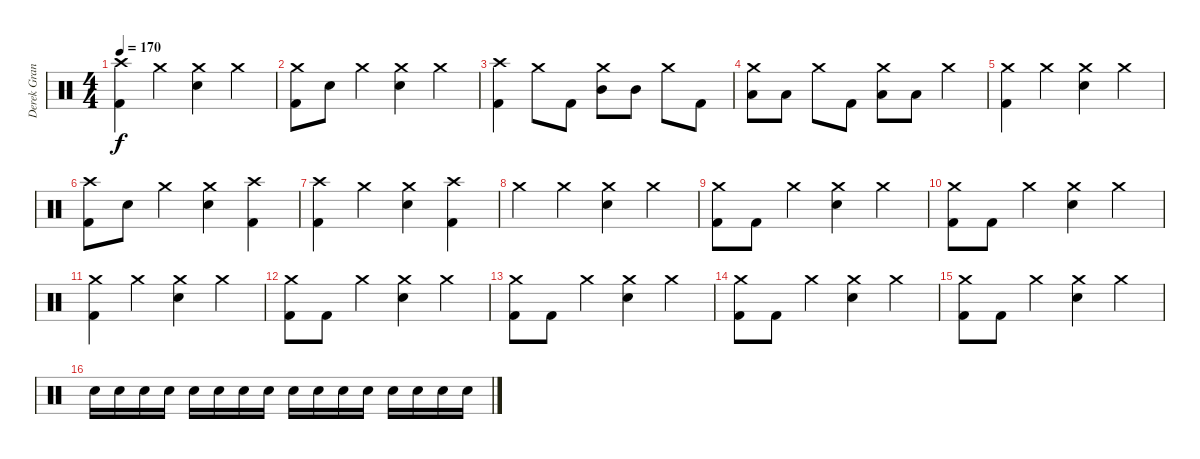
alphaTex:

\track ("Derek Grant" "Derek Gran") {instrument percussion}
\staff {score}
\articulation defaults
\ts (4 4)
\tempo 170
\clef neutral
\ks c
("Crash high (hit)" "Kick (hit) 2").4{dy f} "Crash medium (hit)".4 ("Crash medium (hit)" "Snare (hit) 2").4 "Crash medium (hit)".4 |
("Crash medium (hit)" "Kick (hit) 2").8 "Snare (hit) 2".8 "Crash medium (hit)".4 ("Crash medium (hit)" "Snare (hit) 2").4 "Crash medium (hit)".4 |
("Crash high (hit)" "Kick (hit) 2").4 "Crash medium (hit)".8 "Kick (hit) 2".8 ("Crash medium (hit)" "Mid Tom (hit)").8 "Mid Tom (hit)".8 "Crash medium (hit)".8 "Kick (hit) 2".8 |
("Crash medium (hit)" "Low Tom (hit)").8 "Low Tom (hit)".8 "Crash medium (hit)".8 "Kick (hit) 2".8 ("Crash medium (hit)" "Low Floor Tom (hit)").8 "Low Floor Tom (hit)".8 "Crash medium (hit)".4 |
("Crash medium (hit)" "Kick (hit) 2").4 "Crash medium (hit)".4 ("Crash medium (hit)" "Snare (hit) 2").4 "Crash medium (hit)".4 |
("Crash high (hit)" "Kick (hit) 2").8 "Snare (hit) 2".8 "Crash medium (hit)".4 ("Crash medium (hit)" "Snare (hit) 2").4 ("Crash high (hit)" "Kick (hit) 2").4 |
("Crash high (hit)" "Kick (hit) 2").4 "Crash medium (hit)".4 ("Crash medium (hit)" "Snare (hit) 2").4 ("Crash high (hit)" "Kick (hit) 2").4 |
"Crash medium (hit)".4 "Crash medium (hit)".4 ("Crash medium (hit)" "Snare (hit) 2").4 "Crash medium (hit)".4 |
("Crash medium (hit)" "Kick (hit) 2").8 "Kick (hit) 2".8 "Crash medium (hit)".4 ("Crash medium (hit)" "Snare (hit) 2").4 "Crash medium (hit)".4 |
("Crash medium (hit)" "Kick (hit) 2").8 "Kick (hit) 2".8 "Crash medium (hit)".4 ("Crash medium (hit)" "Snare (hit) 2").4 "Crash medium (hit)".4 |
("Crash medium (hit)" "Kick (hit) 2").4 "Crash medium (hit)".4 ("Crash medium (hit)" "Snare (hit) 2").4 "Crash medium (hit)".4 |
("Crash medium (hit)" "Kick (hit) 2").8 "Kick (hit) 2".8 "Crash medium (hit)".4 ("Crash medium (hit)" "Snare (hit) 2").4 "Crash medium (hit)".4 |
("Crash medium (hit)" "Kick (hit) 2").8 "Kick (hit) 2".8 "Crash medium (hit)".4 ("Crash medium (hit)" "Snare (hit) 2").4 "Crash medium (hit)".4 |
("Crash medium (hit)" "Kick (hit) 2").8 "Kick (hit) 2".8 "Crash medium (hit)".4 ("Crash medium (hit)" "Snare (hit) 2").4 "Crash medium (hit)".4 |
("Crash medium (hit)" "Kick (hit) 2").8 "Kick (hit) 2".8 "Crash medium (hit)".4 ("Crash medium (hit)" "Snare (hit) 2").4 "Crash medium (hit)".4 |
"Snare (hit) 2".16 "Snare (hit) 2".16 "Snare (hit) 2".16 "Snare (hit) 2".16 "Snare (hit) 2".16 "Snare (hit) 2".16 "Snare (hit) 2".16 "Snare (hit) 2".16 "Snare (hit) 2".16 "Snare (hit) 2".16 "Snare (hit) 2".16 "Snare (hit) 2".16 "Snare (hit) 2".16 "Snare (hit) 2".16 "Snare (hit) 2".16 "Snare (hit) 2".16
